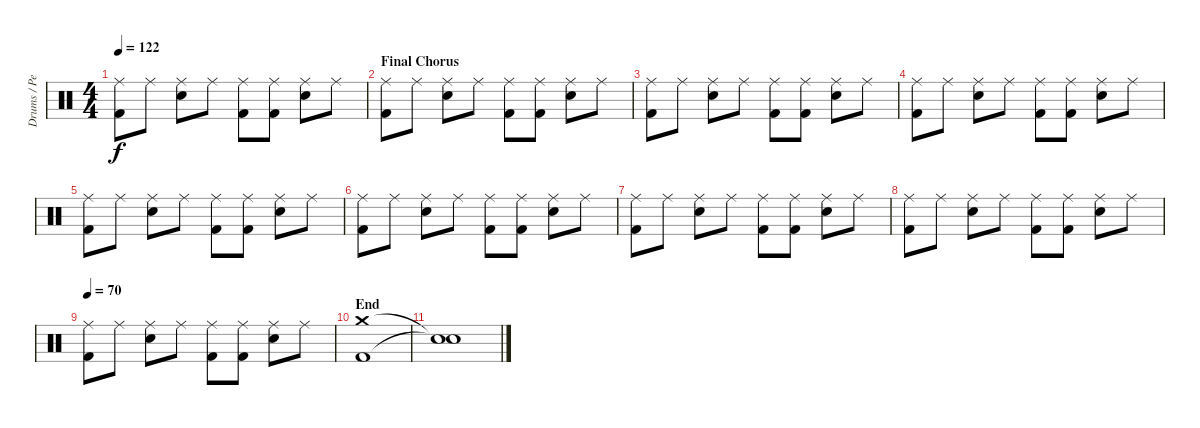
\track ("Drums / Percussion" "Drums / Pe") {instrument percussion}
\staff {score}
\articulation defaults
\ts (4 4)
\tempo 122
\clef neutral
\ks c
("Ride (middle)" "Kick (hit) 2").8{dy f} "Ride (middle)".8 ("Ride (middle)" "Snare (hit) 2").8 "Ride (middle)".8 ("Ride (middle)" "Kick (hit) 2").8 ("Ride (middle)" "Kick (hit) 2").8 ("Ride (middle)" "Snare (hit) 2").8 "Ride (middle)".8 |
\section ("" "Final Chorus")
("Ride (middle)" "Kick (hit) 2").8 "Ride (middle)".8 ("Ride (middle)" "Snare (hit) 2").8 "Ride (middle)".8 ("Ride (middle)" "Kick (hit) 2").8 ("Ride (middle)" "Kick (hit) 2").8 ("Ride (middle)" "Snare (hit) 2").8 "Ride (middle)".8 |
("Ride (middle)" "Kick (hit) 2").8 "Ride (middle)".8 ("Ride (middle)" "Snare (hit) 2").8 "Ride (middle)".8 ("Ride (middle)" "Kick (hit) 2").8 ("Ride (middle)" "Kick (hit) 2").8 ("Ride (middle)" "Snare (hit) 2").8 "Ride (middle)".8 |
("Ride (middle)" "Kick (hit) 2").8 "Ride (middle)".8 ("Ride (middle)" "Snare (hit) 2").8 "Ride (middle)".8 ("Ride (middle)" "Kick (hit) 2").8 ("Ride (middle)" "Kick (hit) 2").8 ("Ride (middle)" "Snare (hit) 2").8 "Ride (middle)".8 |
("Ride (middle)" "Kick (hit) 2").8 "Ride (middle)".8 ("Ride (middle)" "Snare (hit) 2").8 "Ride (middle)".8 ("Ride (middle)" "Kick (hit) 2").8 ("Ride (middle)" "Kick (hit) 2").8 ("Ride (middle)" "Snare (hit) 2").8 "Ride (middle)".8 |
("Ride (middle)" "Kick (hit) 2").8 "Ride (middle)".8 ("Ride (middle)" "Snare (hit) 2").8 "Ride (middle)".8 ("Ride (middle)" "Kick (hit) 2").8 ("Ride (middle)" "Kick (hit) 2").8 ("Ride (middle)" "Snare (hit) 2").8 "Ride (middle)".8 |
("Ride (middle)" "Kick (hit) 2").8 "Ride (middle)".8 ("Ride (middle)" "Snare (hit) 2").8 "Ride (middle)".8 ("Ride (middle)" "Kick (hit) 2").8 ("Ride (middle)" "Kick (hit) 2").8 ("Ride (middle)" "Snare (hit) 2").8 "Ride (middle)".8 |
("Ride (middle)" "Kick (hit) 2").8 "Ride (middle)".8 ("Ride (middle)" "Snare (hit) 2").8 "Ride (middle)".8 ("Ride (middle)" "Kick (hit) 2").8 ("Ride (middle)" "Kick (hit) 2").8 ("Ride (middle)" "Snare (hit) 2").8 "Ride (middle)".8 |
\tempo 70
("Ride (middle)" "Kick (hit) 2").8 "Ride (middle)".8 ("Ride (middle)" "Snare (hit) 2").8 "Ride (middle)".8 ("Ride (middle)" "Kick (hit) 2").8 ("Ride (middle)" "Kick (hit) 2").8 ("Ride (middle)" "Snare (hit) 2").8 "Ride (middle)".8 |
\section ("" "End")
("Crash medium (hit)" "Kick (hit) 2").1 |
("Snare (hit)"{t} "Snare (hit)"{t}).1
